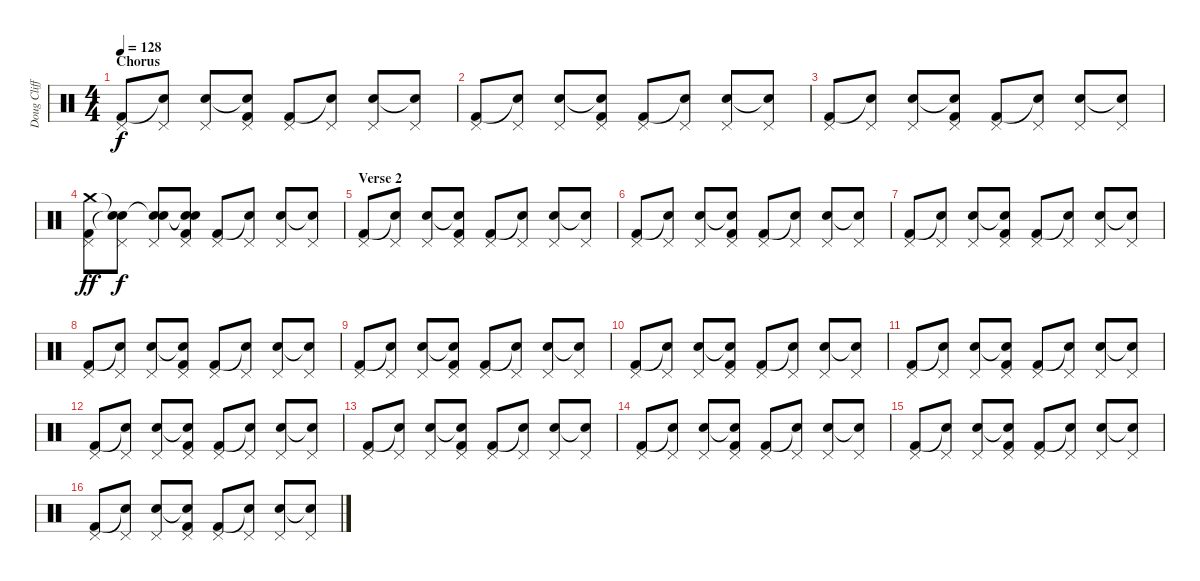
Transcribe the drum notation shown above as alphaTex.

\track ("Doug Clifford" "Doug Cliff") {instrument percussion}
\staff {score}
\articulation defaults
\ts (4 4)
\section ("" "Chorus")
\tempo 128
\clef neutral
\ks c
("Pedal Hi-Hat (hit)" "Kick (hit) 2").8{dy f} ("Pedal Hi-Hat (hit)" "Snare (hit)"{t}).8 ("Pedal Hi-Hat (hit)" "Snare (hit) 2").8 ("Pedal Hi-Hat (hit)" "Snare (hit)"{t} "Kick (hit) 2").8 ("Pedal Hi-Hat (hit)" "Kick (hit) 2").8 ("Pedal Hi-Hat (hit)" "Snare (hit)"{t}).8 ("Pedal Hi-Hat (hit)" "Snare (hit) 2").8 ("Pedal Hi-Hat (hit)" "Snare (hit)"{t}).8 |
("Pedal Hi-Hat (hit)" "Kick (hit) 2").8 ("Pedal Hi-Hat (hit)" "Snare (hit)"{t}).8 ("Pedal Hi-Hat (hit)" "Snare (hit) 2").8 ("Pedal Hi-Hat (hit)" "Snare (hit)"{t} "Kick (hit) 2").8 ("Pedal Hi-Hat (hit)" "Kick (hit) 2").8 ("Pedal Hi-Hat (hit)" "Snare (hit)"{t}).8 ("Pedal Hi-Hat (hit)" "Snare (hit) 2").8 ("Pedal Hi-Hat (hit)" "Snare (hit)"{t}).8 |
("Pedal Hi-Hat (hit)" "Kick (hit) 2").8 ("Pedal Hi-Hat (hit)" "Snare (hit)"{t}).8 ("Pedal Hi-Hat (hit)" "Snare (hit) 2").8 ("Pedal Hi-Hat (hit)" "Snare (hit)"{t} "Kick (hit) 2").8 ("Pedal Hi-Hat (hit)" "Kick (hit) 2").8 ("Pedal Hi-Hat (hit)" "Snare (hit)"{t}).8 ("Pedal Hi-Hat (hit)" "Snare (hit) 2").8 ("Pedal Hi-Hat (hit)" "Snare (hit)"{t}).8 |
("Crash medium (hit)" "Pedal Hi-Hat (hit)" "Kick (hit) 2").8{dy ff} ("Snare (hit)"{t} "Pedal Hi-Hat (hit)" "Snare (hit)"{t}).8{dy f} ("Snare (hit)"{t} "Pedal Hi-Hat (hit)" "Snare (hit) 2").8 ("Snare (hit)"{t} "Pedal Hi-Hat (hit)" "Snare (hit)"{t} "Kick (hit) 2").8 ("Pedal Hi-Hat (hit)" "Kick (hit) 2").8 ("Pedal Hi-Hat (hit)" "Snare (hit)"{t}).8 ("Pedal Hi-Hat (hit)" "Snare (hit) 2").8 ("Pedal Hi-Hat (hit)" "Snare (hit)"{t}).8 |
\section ("" "Verse 2")
("Pedal Hi-Hat (hit)" "Kick (hit) 2").8 ("Pedal Hi-Hat (hit)" "Snare (hit)"{t}).8 ("Pedal Hi-Hat (hit)" "Snare (hit) 2").8 ("Pedal Hi-Hat (hit)" "Snare (hit)"{t} "Kick (hit) 2").8 ("Pedal Hi-Hat (hit)" "Kick (hit) 2").8 ("Pedal Hi-Hat (hit)" "Snare (hit)"{t}).8 ("Pedal Hi-Hat (hit)" "Snare (hit) 2").8 ("Pedal Hi-Hat (hit)" "Snare (hit)"{t}).8 |
("Pedal Hi-Hat (hit)" "Kick (hit) 2").8 ("Pedal Hi-Hat (hit)" "Snare (hit)"{t}).8 ("Pedal Hi-Hat (hit)" "Snare (hit) 2").8 ("Pedal Hi-Hat (hit)" "Snare (hit)"{t} "Kick (hit) 2").8 ("Pedal Hi-Hat (hit)" "Kick (hit) 2").8 ("Pedal Hi-Hat (hit)" "Snare (hit)"{t}).8 ("Pedal Hi-Hat (hit)" "Snare (hit) 2").8 ("Pedal Hi-Hat (hit)" "Snare (hit)"{t}).8 |
("Pedal Hi-Hat (hit)" "Kick (hit) 2").8 ("Pedal Hi-Hat (hit)" "Snare (hit)"{t}).8 ("Pedal Hi-Hat (hit)" "Snare (hit) 2").8 ("Pedal Hi-Hat (hit)" "Snare (hit)"{t} "Kick (hit) 2").8 ("Pedal Hi-Hat (hit)" "Kick (hit) 2").8 ("Pedal Hi-Hat (hit)" "Snare (hit)"{t}).8 ("Pedal Hi-Hat (hit)" "Snare (hit) 2").8 ("Pedal Hi-Hat (hit)" "Snare (hit)"{t}).8 |
("Pedal Hi-Hat (hit)" "Kick (hit) 2").8 ("Pedal Hi-Hat (hit)" "Snare (hit)"{t}).8 ("Pedal Hi-Hat (hit)" "Snare (hit) 2").8 ("Pedal Hi-Hat (hit)" "Snare (hit)"{t} "Kick (hit) 2").8 ("Pedal Hi-Hat (hit)" "Kick (hit) 2").8 ("Pedal Hi-Hat (hit)" "Snare (hit)"{t}).8 ("Pedal Hi-Hat (hit)" "Snare (hit) 2").8 ("Pedal Hi-Hat (hit)" "Snare (hit)"{t}).8 |
("Pedal Hi-Hat (hit)" "Kick (hit) 2").8 ("Pedal Hi-Hat (hit)" "Snare (hit)"{t}).8 ("Pedal Hi-Hat (hit)" "Snare (hit) 2").8 ("Pedal Hi-Hat (hit)" "Snare (hit)"{t} "Kick (hit) 2").8 ("Pedal Hi-Hat (hit)" "Kick (hit) 2").8 ("Pedal Hi-Hat (hit)" "Snare (hit)"{t}).8 ("Pedal Hi-Hat (hit)" "Snare (hit) 2").8 ("Pedal Hi-Hat (hit)" "Snare (hit)"{t}).8 |
("Pedal Hi-Hat (hit)" "Kick (hit) 2").8 ("Pedal Hi-Hat (hit)" "Snare (hit)"{t}).8 ("Pedal Hi-Hat (hit)" "Snare (hit) 2").8 ("Pedal Hi-Hat (hit)" "Snare (hit)"{t} "Kick (hit) 2").8 ("Pedal Hi-Hat (hit)" "Kick (hit) 2").8 ("Pedal Hi-Hat (hit)" "Snare (hit)"{t}).8 ("Pedal Hi-Hat (hit)" "Snare (hit) 2").8 ("Pedal Hi-Hat (hit)" "Snare (hit)"{t}).8 |
("Pedal Hi-Hat (hit)" "Kick (hit) 2").8 ("Pedal Hi-Hat (hit)" "Snare (hit)"{t}).8 ("Pedal Hi-Hat (hit)" "Snare (hit) 2").8 ("Pedal Hi-Hat (hit)" "Snare (hit)"{t} "Kick (hit) 2").8 ("Pedal Hi-Hat (hit)" "Kick (hit) 2").8 ("Pedal Hi-Hat (hit)" "Snare (hit)"{t}).8 ("Pedal Hi-Hat (hit)" "Snare (hit) 2").8 ("Pedal Hi-Hat (hit)" "Snare (hit)"{t}).8 |
("Pedal Hi-Hat (hit)" "Kick (hit) 2").8 ("Pedal Hi-Hat (hit)" "Snare (hit)"{t}).8 ("Pedal Hi-Hat (hit)" "Snare (hit) 2").8 ("Pedal Hi-Hat (hit)" "Snare (hit)"{t} "Kick (hit) 2").8 ("Pedal Hi-Hat (hit)" "Kick (hit) 2").8 ("Pedal Hi-Hat (hit)" "Snare (hit)"{t}).8 ("Pedal Hi-Hat (hit)" "Snare (hit) 2").8 ("Pedal Hi-Hat (hit)" "Snare (hit)"{t}).8 |
("Pedal Hi-Hat (hit)" "Kick (hit) 2").8 ("Pedal Hi-Hat (hit)" "Snare (hit)"{t}).8 ("Pedal Hi-Hat (hit)" "Snare (hit) 2").8 ("Pedal Hi-Hat (hit)" "Snare (hit)"{t} "Kick (hit) 2").8 ("Pedal Hi-Hat (hit)" "Kick (hit) 2").8 ("Pedal Hi-Hat (hit)" "Snare (hit)"{t}).8 ("Pedal Hi-Hat (hit)" "Snare (hit) 2").8 ("Pedal Hi-Hat (hit)" "Snare (hit)"{t}).8 |
("Pedal Hi-Hat (hit)" "Kick (hit) 2").8 ("Pedal Hi-Hat (hit)" "Snare (hit)"{t}).8 ("Pedal Hi-Hat (hit)" "Snare (hit) 2").8 ("Pedal Hi-Hat (hit)" "Snare (hit)"{t} "Kick (hit) 2").8 ("Pedal Hi-Hat (hit)" "Kick (hit) 2").8 ("Pedal Hi-Hat (hit)" "Snare (hit)"{t}).8 ("Pedal Hi-Hat (hit)" "Snare (hit) 2").8 ("Pedal Hi-Hat (hit)" "Snare (hit)"{t}).8 |
("Pedal Hi-Hat (hit)" "Kick (hit) 2").8 ("Pedal Hi-Hat (hit)" "Snare (hit)"{t}).8 ("Pedal Hi-Hat (hit)" "Snare (hit) 2").8 ("Pedal Hi-Hat (hit)" "Snare (hit)"{t} "Kick (hit) 2").8 ("Pedal Hi-Hat (hit)" "Kick (hit) 2").8 ("Pedal Hi-Hat (hit)" "Snare (hit)"{t}).8 ("Pedal Hi-Hat (hit)" "Snare (hit) 2").8 ("Pedal Hi-Hat (hit)" "Snare (hit)"{t}).8 |
("Pedal Hi-Hat (hit)" "Kick (hit) 2").8 ("Pedal Hi-Hat (hit)" "Snare (hit)"{t}).8 ("Pedal Hi-Hat (hit)" "Snare (hit) 2").8 ("Pedal Hi-Hat (hit)" "Snare (hit)"{t} "Kick (hit) 2").8 ("Pedal Hi-Hat (hit)" "Kick (hit) 2").8 ("Pedal Hi-Hat (hit)" "Snare (hit)"{t}).8 ("Pedal Hi-Hat (hit)" "Snare (hit) 2").8 ("Pedal Hi-Hat (hit)" "Snare (hit)"{t}).8
